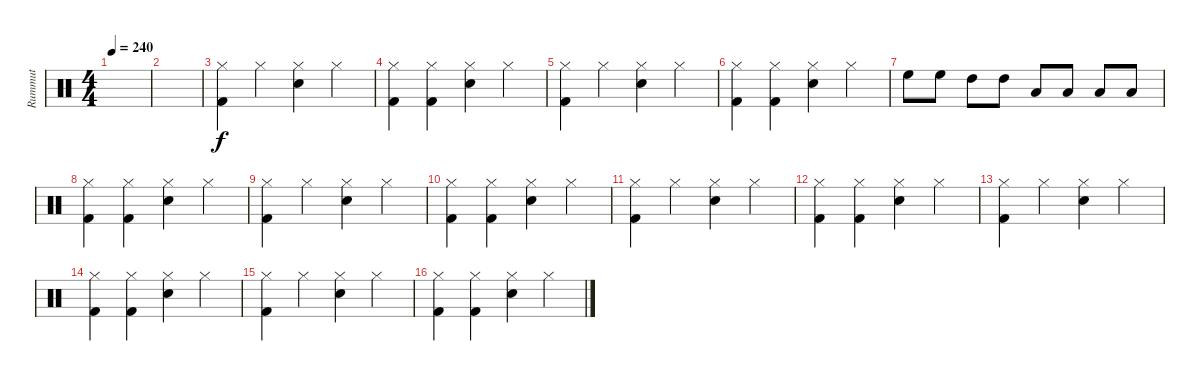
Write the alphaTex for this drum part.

\track ("Rummut" "Rummut") {instrument percussion}
\staff
\articulation defaults
\ts (4 4)
\tempo 240
\clef neutral
\ks c
|
|
("Hi-Hat (closed)" "Kick (hit) 2").4 "Hi-Hat (closed)".4 ("Hi-Hat (closed)" "Electric Snare (hit)").4 "Hi-Hat (closed)".4 |
("Hi-Hat (closed)" "Kick (hit) 2").4 ("Hi-Hat (closed)" "Kick (hit) 2").4 ("Hi-Hat (closed)" "Electric Snare (hit)").4 "Hi-Hat (closed)".4 |
("Hi-Hat (closed)" "Kick (hit) 2").4 "Hi-Hat (closed)".4 ("Hi-Hat (closed)" "Electric Snare (hit)").4 "Hi-Hat (closed)".4 |
("Hi-Hat (closed)" "Kick (hit) 2").4 ("Hi-Hat (closed)" "Kick (hit) 2").4 ("Hi-Hat (closed)" "Electric Snare (hit)").4 "Hi-Hat (closed)".4 |
"High Floor Tom (hit)".8 "High Floor Tom (hit)".8 "High Tom (hit)".8 "High Tom (hit)".8 "Low Tom (hit)".8 "Low Tom (hit)".8 "Low Floor Tom (hit)".8 "Low Floor Tom (hit)".8 |
("Hi-Hat (closed)" "Kick (hit) 2").4 ("Hi-Hat (closed)" "Kick (hit) 2").4 ("Hi-Hat (closed)" "Electric Snare (hit)").4 "Hi-Hat (closed)".4 |
("Hi-Hat (closed)" "Kick (hit) 2").4 "Hi-Hat (closed)".4 ("Hi-Hat (closed)" "Electric Snare (hit)").4 "Hi-Hat (closed)".4 |
("Hi-Hat (closed)" "Kick (hit) 2").4 ("Hi-Hat (closed)" "Kick (hit) 2").4 ("Hi-Hat (closed)" "Electric Snare (hit)").4 "Hi-Hat (closed)".4 |
("Hi-Hat (closed)" "Kick (hit) 2").4 "Hi-Hat (closed)".4 ("Hi-Hat (closed)" "Electric Snare (hit)").4 "Hi-Hat (closed)".4 |
("Hi-Hat (closed)" "Kick (hit) 2").4 ("Hi-Hat (closed)" "Kick (hit) 2").4 ("Hi-Hat (closed)" "Electric Snare (hit)").4 "Hi-Hat (closed)".4 |
("Hi-Hat (closed)" "Kick (hit) 2").4 "Hi-Hat (closed)".4 ("Hi-Hat (closed)" "Electric Snare (hit)").4 "Hi-Hat (closed)".4 |
("Hi-Hat (closed)" "Kick (hit) 2").4 ("Hi-Hat (closed)" "Kick (hit) 2").4 ("Hi-Hat (closed)" "Electric Snare (hit)").4 "Hi-Hat (closed)".4 |
("Hi-Hat (closed)" "Kick (hit) 2").4 "Hi-Hat (closed)".4 ("Hi-Hat (closed)" "Electric Snare (hit)").4 "Hi-Hat (closed)".4 |
("Hi-Hat (closed)" "Kick (hit) 2").4 ("Hi-Hat (closed)" "Kick (hit) 2").4 ("Hi-Hat (closed)" "Electric Snare (hit)").4 "Hi-Hat (closed)".4
